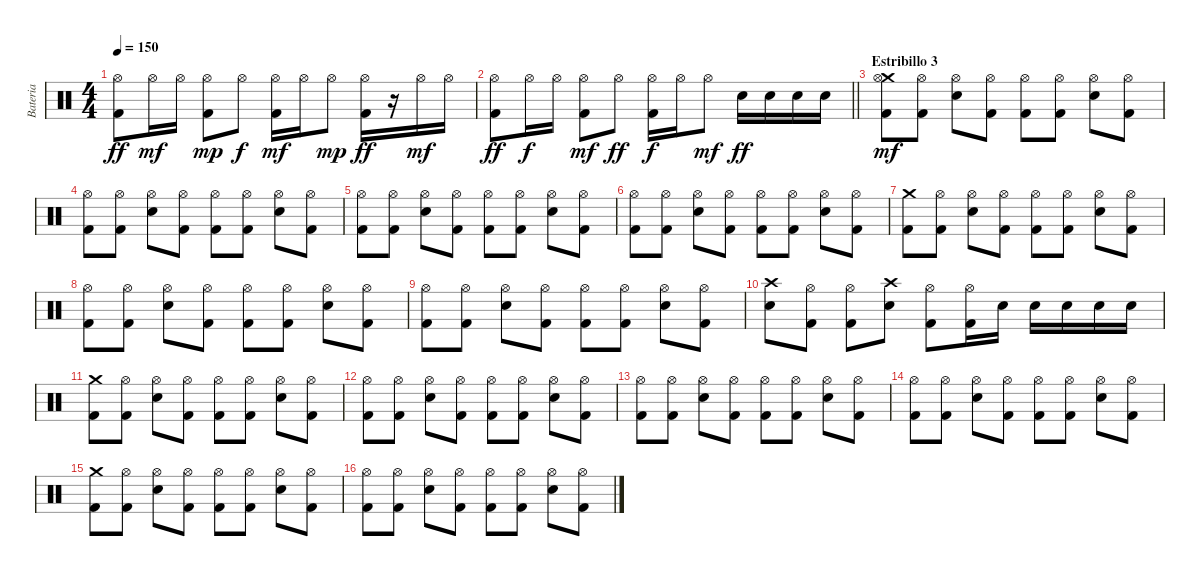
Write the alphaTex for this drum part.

\track ("Bateria" "Bateria") {instrument percussion}
\staff {score}
\articulation defaults
\ts (4 4)
\tempo 150
\clef neutral
\ks c
("Hi-Hat (open)" "Kick (hit) 2").8{dy ff} "Hi-Hat (open)".16{dy mf} "Hi-Hat (open)".16 ("Hi-Hat (open)" "Kick (hit) 2").8{dy mp} "Hi-Hat (open)".8{dy f} ("Hi-Hat (open)" "Kick (hit) 2").16{dy mf} "Hi-Hat (open)".16 "Hi-Hat (open)".8{dy mp} ("Hi-Hat (open)" "Kick (hit) 2").16{dy ff} r.16 "Hi-Hat (open)".16{dy mf} "Hi-Hat (open)".16 |
\barLineRight lightlight
("Hi-Hat (open)" "Kick (hit) 2").8{dy ff} "Hi-Hat (open)".16{dy f} "Hi-Hat (open)".16 ("Hi-Hat (open)" "Kick (hit) 2").8{dy mf} "Hi-Hat (open)".8{dy ff} ("Hi-Hat (open)" "Kick (hit) 2").16{dy f} "Hi-Hat (open)".16 "Hi-Hat (open)".8{dy mf} "Snare (hit) 2".16{dy ff} "Snare (hit) 2".16 "Snare (hit) 2".16 "Snare (hit) 2".16 |
\section ("" "Estribillo 3")
("Crash medium (hit)" "Hi-Hat (open)" "Kick (hit) 2").8{dy mf} ("Hi-Hat (open)" "Kick (hit) 2").8 ("Hi-Hat (open)" "Snare (hit) 2").8 ("Hi-Hat (open)" "Kick (hit) 2").8 ("Hi-Hat (open)" "Kick (hit) 2").8 ("Hi-Hat (open)" "Kick (hit) 2").8 ("Hi-Hat (open)" "Snare (hit) 2").8 ("Hi-Hat (open)" "Kick (hit) 2").8 |
("Hi-Hat (open)" "Kick (hit) 2").8 ("Hi-Hat (open)" "Kick (hit) 2").8 ("Hi-Hat (open)" "Snare (hit) 2").8 ("Hi-Hat (open)" "Kick (hit) 2").8 ("Hi-Hat (open)" "Kick (hit) 2").8 ("Hi-Hat (open)" "Kick (hit) 2").8 ("Hi-Hat (open)" "Snare (hit) 2").8 ("Hi-Hat (open)" "Kick (hit) 2").8 |
("Hi-Hat (open)" "Kick (hit) 2").8 ("Hi-Hat (open)" "Kick (hit) 2").8 ("Hi-Hat (open)" "Snare (hit) 2").8 ("Hi-Hat (open)" "Kick (hit) 2").8 ("Hi-Hat (open)" "Kick (hit) 2").8 ("Hi-Hat (open)" "Kick (hit) 2").8 ("Hi-Hat (open)" "Snare (hit) 2").8 ("Hi-Hat (open)" "Kick (hit) 2").8 |
("Hi-Hat (open)" "Kick (hit) 2").8 ("Hi-Hat (open)" "Kick (hit) 2").8 ("Hi-Hat (open)" "Snare (hit) 2").8 ("Hi-Hat (open)" "Kick (hit) 2").8 ("Hi-Hat (open)" "Kick (hit) 2").8 ("Hi-Hat (open)" "Kick (hit) 2").8 ("Hi-Hat (open)" "Snare (hit) 2").8 ("Hi-Hat (open)" "Kick (hit) 2").8 |
("Crash medium (hit)" "Kick (hit) 2").8 ("Hi-Hat (open)" "Kick (hit) 2").8 ("Hi-Hat (open)" "Snare (hit) 2").8 ("Hi-Hat (open)" "Kick (hit) 2").8 ("Hi-Hat (open)" "Kick (hit) 2").8 ("Hi-Hat (open)" "Kick (hit) 2").8 ("Hi-Hat (open)" "Snare (hit) 2").8 ("Hi-Hat (open)" "Kick (hit) 2").8 |
("Hi-Hat (open)" "Kick (hit) 2").8 ("Hi-Hat (open)" "Kick (hit) 2").8 ("Hi-Hat (open)" "Snare (hit) 2").8 ("Hi-Hat (open)" "Kick (hit) 2").8 ("Hi-Hat (open)" "Kick (hit) 2").8 ("Hi-Hat (open)" "Kick (hit) 2").8 ("Hi-Hat (open)" "Snare (hit) 2").8 ("Hi-Hat (open)" "Kick (hit) 2").8 |
("Hi-Hat (open)" "Kick (hit) 2").8 ("Hi-Hat (open)" "Kick (hit) 2").8 ("Hi-Hat (open)" "Snare (hit) 2").8 ("Hi-Hat (open)" "Kick (hit) 2").8 ("Hi-Hat (open)" "Kick (hit) 2").8 ("Hi-Hat (open)" "Kick (hit) 2").8 ("Hi-Hat (open)" "Snare (hit) 2").8 ("Hi-Hat (open)" "Kick (hit) 2").8 |
("Crash high (hit)" "Snare (hit) 2").8 ("Hi-Hat (open)" "Kick (hit) 2").8 ("Hi-Hat (open)" "Kick (hit) 2").8 ("Crash high (hit)" "Snare (hit) 2").8 ("Hi-Hat (open)" "Kick (hit) 2").8 ("Hi-Hat (open)" "Kick (hit) 2").16 "Snare (hit) 2".16 "Snare (hit) 2".16 "Snare (hit) 2".16 "Snare (hit) 2".16 "Snare (hit) 2".16 |
("Crash medium (hit)" "Kick (hit) 2").8 ("Hi-Hat (open)" "Kick (hit) 2").8 ("Hi-Hat (open)" "Snare (hit) 2").8 ("Hi-Hat (open)" "Kick (hit) 2").8 ("Hi-Hat (open)" "Kick (hit) 2").8 ("Hi-Hat (open)" "Kick (hit) 2").8 ("Hi-Hat (open)" "Snare (hit) 2").8 ("Hi-Hat (open)" "Kick (hit) 2").8 |
("Hi-Hat (open)" "Kick (hit) 2").8 ("Hi-Hat (open)" "Kick (hit) 2").8 ("Hi-Hat (open)" "Snare (hit) 2").8 ("Hi-Hat (open)" "Kick (hit) 2").8 ("Hi-Hat (open)" "Kick (hit) 2").8 ("Hi-Hat (open)" "Kick (hit) 2").8 ("Hi-Hat (open)" "Snare (hit) 2").8 ("Hi-Hat (open)" "Kick (hit) 2").8 |
("Hi-Hat (open)" "Kick (hit) 2").8 ("Hi-Hat (open)" "Kick (hit) 2").8 ("Hi-Hat (open)" "Snare (hit) 2").8 ("Hi-Hat (open)" "Kick (hit) 2").8 ("Hi-Hat (open)" "Kick (hit) 2").8 ("Hi-Hat (open)" "Kick (hit) 2").8 ("Hi-Hat (open)" "Snare (hit) 2").8 ("Hi-Hat (open)" "Kick (hit) 2").8 |
("Hi-Hat (open)" "Kick (hit) 2").8 ("Hi-Hat (open)" "Kick (hit) 2").8 ("Hi-Hat (open)" "Snare (hit) 2").8 ("Hi-Hat (open)" "Kick (hit) 2").8 ("Hi-Hat (open)" "Kick (hit) 2").8 ("Hi-Hat (open)" "Kick (hit) 2").8 ("Hi-Hat (open)" "Snare (hit) 2").8 ("Hi-Hat (open)" "Kick (hit) 2").8 |
("Crash medium (hit)" "Kick (hit) 2").8 ("Hi-Hat (open)" "Kick (hit) 2").8 ("Hi-Hat (open)" "Snare (hit) 2").8 ("Hi-Hat (open)" "Kick (hit) 2").8 ("Hi-Hat (open)" "Kick (hit) 2").8 ("Hi-Hat (open)" "Kick (hit) 2").8 ("Hi-Hat (open)" "Snare (hit) 2").8 ("Hi-Hat (open)" "Kick (hit) 2").8 |
("Hi-Hat (open)" "Kick (hit) 2").8 ("Hi-Hat (open)" "Kick (hit) 2").8 ("Hi-Hat (open)" "Snare (hit) 2").8 ("Hi-Hat (open)" "Kick (hit) 2").8 ("Hi-Hat (open)" "Kick (hit) 2").8 ("Hi-Hat (open)" "Kick (hit) 2").8 ("Hi-Hat (open)" "Snare (hit) 2").8 ("Hi-Hat (open)" "Kick (hit) 2").8
